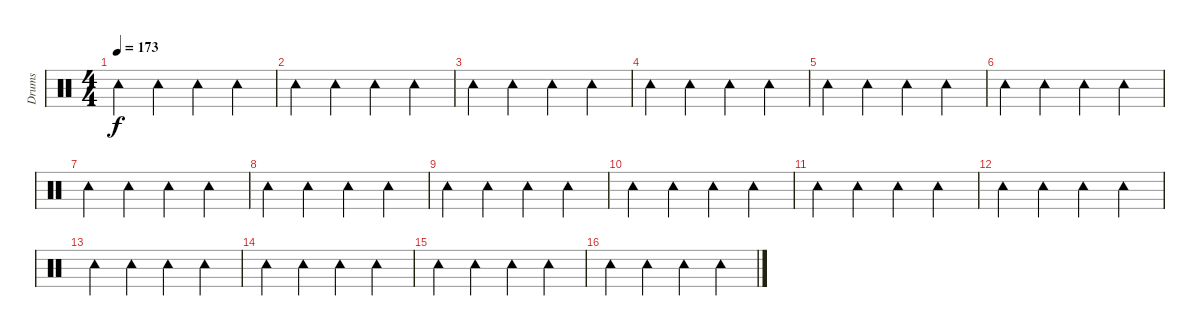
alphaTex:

\track ("Drums" "Drums") {instrument percussion}
\staff {score}
\articulation defaults
\ts (4 4)
\tempo 173
\clef neutral
\ks c "Tambourine (hit)".4{dy f} "Tambourine (hit)".4 "Tambourine (hit)".4 "Tambourine (hit)".4
|
"Tambourine (hit)".4 "Tambourine (hit)".4 "Tambourine (hit)".4 "Tambourine (hit)".4 |
"Tambourine (hit)".4 "Tambourine (hit)".4 "Tambourine (hit)".4 "Tambourine (hit)".4 |
"Tambourine (hit)".4 "Tambourine (hit)".4 "Tambourine (hit)".4 "Tambourine (hit)".4 |
"Tambourine (hit)".4 "Tambourine (hit)".4 "Tambourine (hit)".4 "Tambourine (hit)".4 |
"Tambourine (hit)".4 "Tambourine (hit)".4 "Tambourine (hit)".4 "Tambourine (hit)".4 |
"Tambourine (hit)".4 "Tambourine (hit)".4 "Tambourine (hit)".4 "Tambourine (hit)".4 |
"Tambourine (hit)".4 "Tambourine (hit)".4 "Tambourine (hit)".4 "Tambourine (hit)".4 |
"Tambourine (hit)".4 "Tambourine (hit)".4 "Tambourine (hit)".4 "Tambourine (hit)".4 |
"Tambourine (hit)".4 "Tambourine (hit)".4 "Tambourine (hit)".4 "Tambourine (hit)".4 |
"Tambourine (hit)".4 "Tambourine (hit)".4 "Tambourine (hit)".4 "Tambourine (hit)".4 |
"Tambourine (hit)".4 "Tambourine (hit)".4 "Tambourine (hit)".4 "Tambourine (hit)".4 |
"Tambourine (hit)".4 "Tambourine (hit)".4 "Tambourine (hit)".4 "Tambourine (hit)".4 |
"Tambourine (hit)".4 "Tambourine (hit)".4 "Tambourine (hit)".4 "Tambourine (hit)".4 |
"Tambourine (hit)".4 "Tambourine (hit)".4 "Tambourine (hit)".4 "Tambourine (hit)".4 |
"Tambourine (hit)".4 "Tambourine (hit)".4 "Tambourine (hit)".4 "Tambourine (hit)".4
